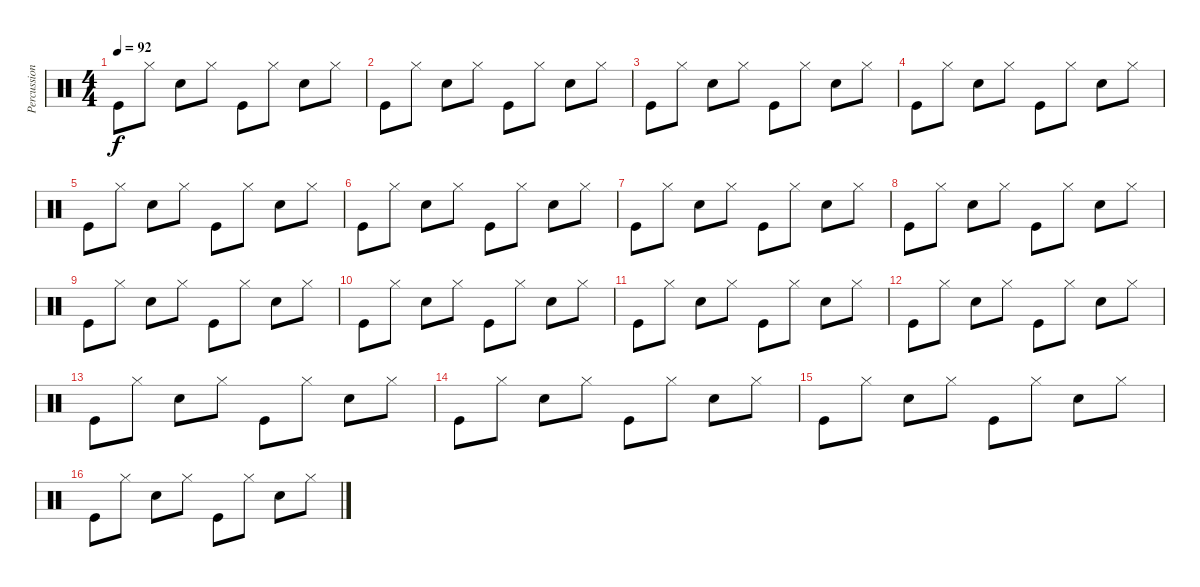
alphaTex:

\track ("Percussions" "Percussion") {instrument percussion}
\staff {score}
\articulation defaults
\ts (4 4)
\tempo 92
\clef neutral
\ks c "Kick (hit)".8{dy f} "Hi-Hat (closed)".8 "Electric Snare (hit)".8 "Hi-Hat (closed)".8 "Kick (hit)".8 "Hi-Hat (closed)".8 "Electric Snare (hit)".8 "Hi-Hat (closed)".8
|
"Kick (hit)".8 "Hi-Hat (closed)".8 "Electric Snare (hit)".8 "Hi-Hat (closed)".8 "Kick (hit)".8 "Hi-Hat (closed)".8 "Electric Snare (hit)".8 "Hi-Hat (closed)".8 |
"Kick (hit)".8 "Hi-Hat (closed)".8 "Electric Snare (hit)".8 "Hi-Hat (closed)".8 "Kick (hit)".8 "Hi-Hat (closed)".8 "Electric Snare (hit)".8 "Hi-Hat (closed)".8 |
"Kick (hit)".8 "Hi-Hat (closed)".8 "Electric Snare (hit)".8 "Hi-Hat (closed)".8 "Kick (hit)".8 "Hi-Hat (closed)".8 "Electric Snare (hit)".8 "Hi-Hat (closed)".8 |
"Kick (hit)".8 "Hi-Hat (closed)".8 "Electric Snare (hit)".8 "Hi-Hat (closed)".8 "Kick (hit)".8 "Hi-Hat (closed)".8 "Electric Snare (hit)".8 "Hi-Hat (closed)".8 |
"Kick (hit)".8 "Hi-Hat (closed)".8 "Electric Snare (hit)".8 "Hi-Hat (closed)".8 "Kick (hit)".8 "Hi-Hat (closed)".8 "Electric Snare (hit)".8 "Hi-Hat (closed)".8 |
"Kick (hit)".8 "Hi-Hat (closed)".8 "Electric Snare (hit)".8 "Hi-Hat (closed)".8 "Kick (hit)".8 "Hi-Hat (closed)".8 "Electric Snare (hit)".8 "Hi-Hat (closed)".8 |
"Kick (hit)".8 "Hi-Hat (closed)".8 "Electric Snare (hit)".8 "Hi-Hat (closed)".8 "Kick (hit)".8 "Hi-Hat (closed)".8 "Electric Snare (hit)".8 "Hi-Hat (closed)".8 |
"Kick (hit)".8 "Hi-Hat (closed)".8 "Electric Snare (hit)".8 "Hi-Hat (closed)".8 "Kick (hit)".8 "Hi-Hat (closed)".8 "Electric Snare (hit)".8 "Hi-Hat (closed)".8 |
"Kick (hit)".8 "Hi-Hat (closed)".8 "Electric Snare (hit)".8 "Hi-Hat (closed)".8 "Kick (hit)".8 "Hi-Hat (closed)".8 "Electric Snare (hit)".8 "Hi-Hat (closed)".8 |
"Kick (hit)".8 "Hi-Hat (closed)".8 "Electric Snare (hit)".8 "Hi-Hat (closed)".8 "Kick (hit)".8 "Hi-Hat (closed)".8 "Electric Snare (hit)".8 "Hi-Hat (closed)".8 |
"Kick (hit)".8 "Hi-Hat (closed)".8 "Electric Snare (hit)".8 "Hi-Hat (closed)".8 "Kick (hit)".8 "Hi-Hat (closed)".8 "Electric Snare (hit)".8 "Hi-Hat (closed)".8 |
"Kick (hit)".8 "Hi-Hat (closed)".8 "Electric Snare (hit)".8 "Hi-Hat (closed)".8 "Kick (hit)".8 "Hi-Hat (closed)".8 "Electric Snare (hit)".8 "Hi-Hat (closed)".8 |
"Kick (hit)".8 "Hi-Hat (closed)".8 "Electric Snare (hit)".8 "Hi-Hat (closed)".8 "Kick (hit)".8 "Hi-Hat (closed)".8 "Electric Snare (hit)".8 "Hi-Hat (closed)".8 |
"Kick (hit)".8 "Hi-Hat (closed)".8 "Electric Snare (hit)".8 "Hi-Hat (closed)".8 "Kick (hit)".8 "Hi-Hat (closed)".8 "Electric Snare (hit)".8 "Hi-Hat (closed)".8 |
"Kick (hit)".8 "Hi-Hat (closed)".8 "Electric Snare (hit)".8 "Hi-Hat (closed)".8 "Kick (hit)".8 "Hi-Hat (closed)".8 "Electric Snare (hit)".8 "Hi-Hat (closed)".8
